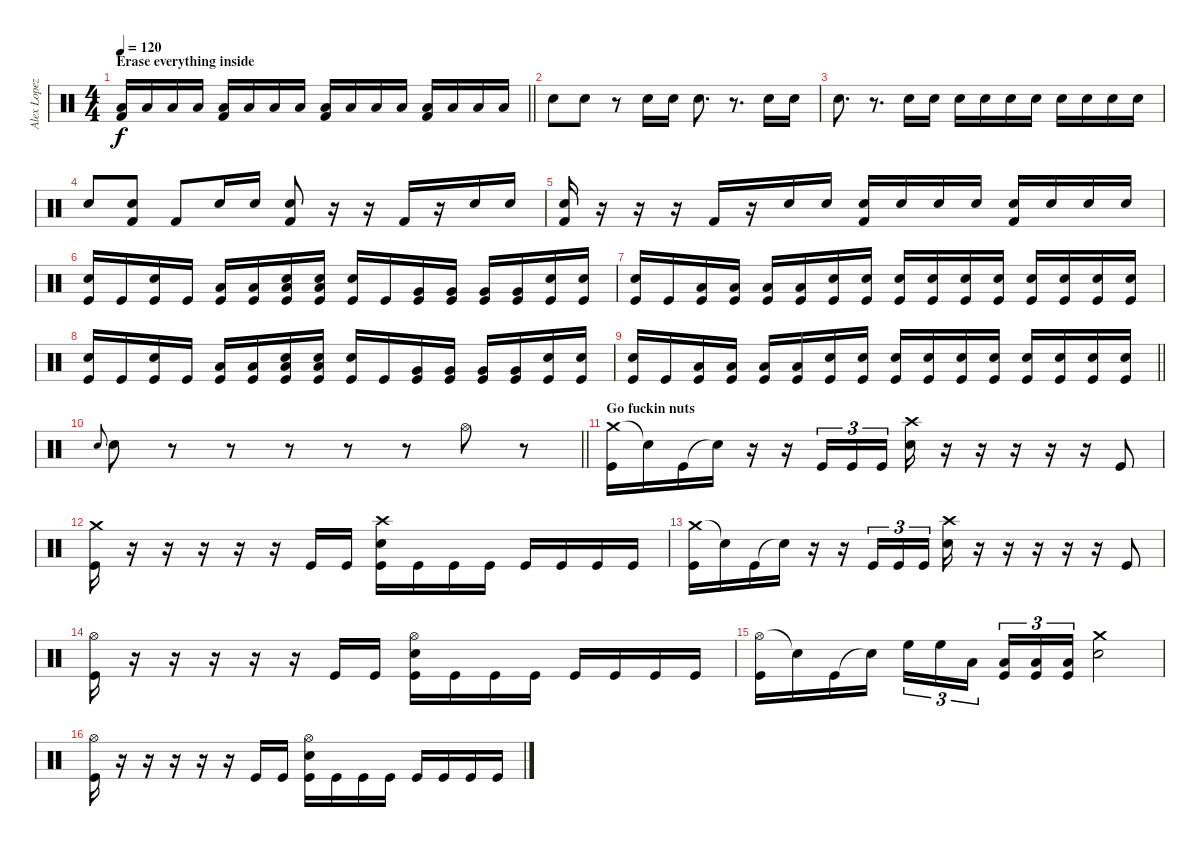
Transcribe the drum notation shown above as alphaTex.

\track ("Alex Lopez - Drums" "Alex Lopez") {instrument percussion}
\staff {score}
\articulation defaults
\ts (4 4)
\section ("" "Erase everything inside")
\tempo 120
\clef neutral
\barLineRight lightlight
\ks c
("Low Tom (hit)" "Kick (hit) 2").16{dy f} "Low Floor Tom (hit)".16 "Low Tom (hit)".16 "Low Floor Tom (hit)".16 ("Low Floor Tom (hit)" "Kick (hit) 2").16 "Low Floor Tom (hit)".16 "Low Tom (hit)".16 "Low Floor Tom (hit)".16 ("Low Tom (hit)" "Kick (hit) 2").16 "Low Floor Tom (hit)".16 "Low Floor Tom (hit)".16 "Low Floor Tom (hit)".16 ("Low Tom (hit)" "Kick (hit) 2").16 "Low Floor Tom (hit)".16 "Low Tom (hit)".16 "Low Floor Tom (hit)".16 |
"Electric Snare (hit)".8 "Electric Snare (hit)".8 r.8 "Electric Snare (hit)".16 "Electric Snare (hit)".16 "Electric Snare (hit)".8{d} r.8{d} "Electric Snare (hit)".16 "Electric Snare (hit)".16 |
"Electric Snare (hit)".8{d} r.8{d} "Electric Snare (hit)".16 "Electric Snare (hit)".16 "Electric Snare (hit)".16 "Electric Snare (hit)".16 "Electric Snare (hit)".16 "Electric Snare (hit)".16 "Electric Snare (hit)".16 "Electric Snare (hit)".16 "Electric Snare (hit)".16 "Electric Snare (hit)".16 |
"Electric Snare (hit)".8 ("Electric Snare (hit)" "Kick (hit) 2").8 "Kick (hit) 2".8 "Electric Snare (hit)".16 "Electric Snare (hit)".16 ("Electric Snare (hit)" "Kick (hit) 2").8 r.16 r.16 "Kick (hit) 2".16 r.16 "Electric Snare (hit)".16 "Electric Snare (hit)".16 |
("Electric Snare (hit)" "Kick (hit) 2").16 r.16 r.16 r.16 "Kick (hit) 2".16 r.16 "Electric Snare (hit)".16 "Electric Snare (hit)".16 ("Electric Snare (hit)" "Kick (hit) 2").16 "Electric Snare (hit)".16 "Electric Snare (hit)".16 "Electric Snare (hit)".16 ("Electric Snare (hit)" "Kick (hit) 2").16 "Electric Snare (hit)".16 "Electric Snare (hit)".16 "Electric Snare (hit)".16 |
("Electric Snare (hit)" "Kick (hit)").16 "Kick (hit)".16 ("Electric Snare (hit)" "Kick (hit)").16 "Kick (hit)".16 ("Low Tom (hit)" "Kick (hit)").16 ("Low Tom (hit)" "Kick (hit)").16 ("Low Tom (hit)" "Electric Snare (hit)" "Kick (hit)").16 ("Low Tom (hit)" "Electric Snare (hit)" "Kick (hit)").16 ("Electric Snare (hit)" "Kick (hit)").16 "Kick (hit)".16 ("Very Low Tom (hit)" "Kick (hit)").16 ("Very Low Tom (hit)" "Kick (hit)").16 ("Very Low Tom (hit)" "Kick (hit)").16 ("Very Low Tom (hit)" "Kick (hit)").16 ("Electric Snare (hit)" "Kick (hit)").16 ("Electric Snare (hit)" "Kick (hit)").16 |
("Electric Snare (hit)" "Kick (hit)").16 "Kick (hit)".16 ("Low Floor Tom (hit)" "Kick (hit)").16 ("Low Floor Tom (hit)" "Kick (hit)").16 ("Low Floor Tom (hit)" "Kick (hit)").16 ("Low Floor Tom (hit)" "Kick (hit)").16 ("Electric Snare (hit)" "Kick (hit)").16 ("Electric Snare (hit)" "Kick (hit)").16 ("Electric Snare (hit)" "Kick (hit)").16 ("Electric Snare (hit)" "Kick (hit)").16 ("Electric Snare (hit)" "Kick (hit)").16 ("Electric Snare (hit)" "Kick (hit)").16 ("Electric Snare (hit)" "Kick (hit)").16 ("Electric Snare (hit)" "Kick (hit)").16 ("Electric Snare (hit)" "Kick (hit)").16 ("Electric Snare (hit)" "Kick (hit)").16 |
("Electric Snare (hit)" "Kick (hit)").16 "Kick (hit)".16 ("Electric Snare (hit)" "Kick (hit)").16 "Kick (hit)".16 ("Low Tom (hit)" "Kick (hit)").16 ("Low Tom (hit)" "Kick (hit)").16 ("Low Tom (hit)" "Electric Snare (hit)" "Kick (hit)").16 ("Low Tom (hit)" "Electric Snare (hit)" "Kick (hit)").16 ("Electric Snare (hit)" "Kick (hit)").16 "Kick (hit)".16 ("Very Low Tom (hit)" "Kick (hit)").16 ("Very Low Tom (hit)" "Kick (hit)").16 ("Very Low Tom (hit)" "Kick (hit)").16 ("Very Low Tom (hit)" "Kick (hit)").16 ("Electric Snare (hit)" "Kick (hit)").16 ("Electric Snare (hit)" "Kick (hit)").16 |
\barLineRight lightlight
("Electric Snare (hit)" "Kick (hit)").16 "Kick (hit)".16 ("Low Floor Tom (hit)" "Kick (hit)").16 ("Low Floor Tom (hit)" "Kick (hit)").16 ("Low Floor Tom (hit)" "Kick (hit)").16 ("Low Floor Tom (hit)" "Kick (hit)").16 ("Electric Snare (hit)" "Kick (hit)").16 ("Electric Snare (hit)" "Kick (hit)").16 ("Electric Snare (hit)" "Kick (hit)").16 ("Electric Snare (hit)" "Kick (hit)").16 ("Electric Snare (hit)" "Kick (hit)").16 ("Electric Snare (hit)" "Kick (hit)").16 ("Electric Snare (hit)" "Kick (hit)").16 ("Electric Snare (hit)" "Kick (hit)").16 ("Electric Snare (hit)" "Kick (hit)").16 ("Electric Snare (hit)" "Kick (hit)").16 |
\barLineRight lightlight "Electric Snare (hit)".8{gr onbeat} "Electric Snare (hit)".8
r.8 r.8 r.8 r.8 r.8 "Hi-Hat (open)".8 r.8 |
\section ("" "Go fuckin nuts ")
("Crash medium (hit)" "Kick (hit)").16{volume 13} "Snare (hit)"{t}.16 "Kick (hit)".16 "Snare (hit)"{t}.16 r.16 r.16 "Kick (hit)".16{tu (3 2)} "Kick (hit)".16{tu (3 2)} "Kick (hit)".16{tu (3 2)} ("Crash high (hit)" "Electric Snare (hit)").16 r.16 r.16 r.16 r.16 r.16 "Kick (hit)".8 |
("Crash medium (hit)" "Kick (hit)").16 r.16 r.16 r.16 r.16 r.16 "Kick (hit)".16 "Kick (hit)".16 ("Crash high (hit)" "Electric Snare (hit)" "Kick (hit)").16 "Kick (hit)".16 "Kick (hit)".16 "Kick (hit)".16 "Kick (hit)".16 "Kick (hit)".16 "Kick (hit)".16 "Kick (hit)".16 |
("Crash medium (hit)" "Kick (hit)").16{volume 13} "Snare (hit)"{t}.16 "Kick (hit)".16 "Snare (hit)"{t}.16 r.16 r.16 "Kick (hit)".16{tu (3 2)} "Kick (hit)".16{tu (3 2)} "Kick (hit)".16{tu (3 2)} ("Crash high (hit)" "Electric Snare (hit)").16 r.16 r.16 r.16 r.16 r.16 "Kick (hit)".8 |
("Hi-Hat (open)" "Kick (hit)").16 r.16 r.16 r.16 r.16 r.16 "Kick (hit)".16 "Kick (hit)".16 ("Hi-Hat (open)" "Electric Snare (hit)" "Kick (hit)").16 "Kick (hit)".16 "Kick (hit)".16 "Kick (hit)".16 "Kick (hit)".16 "Kick (hit)".16 "Kick (hit)".16 "Kick (hit)".16 |
("Hi-Hat (open)" "Kick (hit)").16{volume 13} "Snare (hit)"{t}.16 "Kick (hit)".16 "Snare (hit)"{t}.16 "High Floor Tom (hit)".16{tu (3 2)} "High Floor Tom (hit)".16{tu (3 2)} "Low Tom (hit)".16{tu (3 2) beam splitsecondary} ("Low Tom (hit)" "Kick (hit)").16{tu (3 2)} ("Low Floor Tom (hit)" "Kick (hit)").16{tu (3 2)} ("Low Floor Tom (hit)" "Kick (hit)").16{tu (3 2)} ("Crash medium (hit)" "Electric Snare (hit)").2 |
("Hi-Hat (open)" "Kick (hit)").16 r.16 r.16 r.16 r.16 r.16 "Kick (hit)".16 "Kick (hit)".16 ("Hi-Hat (open)" "Electric Snare (hit)" "Kick (hit)").16 "Kick (hit)".16 "Kick (hit)".16 "Kick (hit)".16 "Kick (hit)".16 "Kick (hit)".16 "Kick (hit)".16 "Kick (hit)".16
